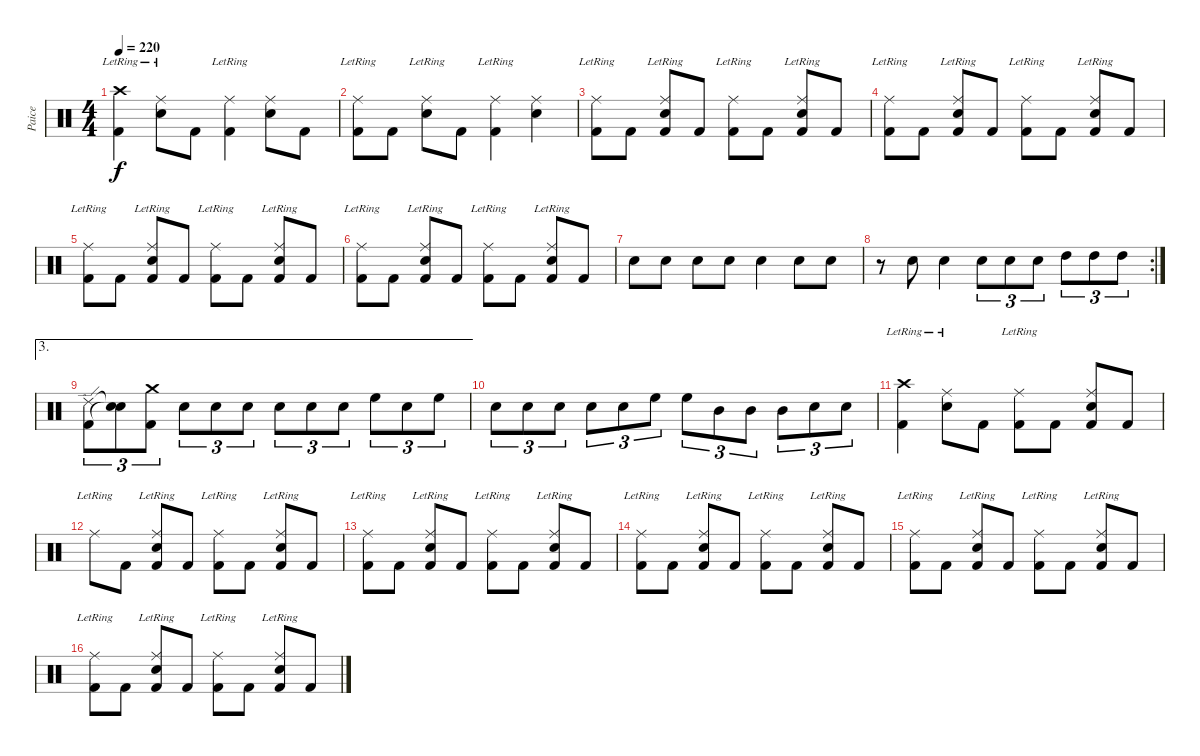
\track ("Paice" "Paice") {instrument percussion}
\staff {score}
\articulation defaults
\ts (4 4)
\tempo 220
\clef neutral
\ks c
("Crash high (hit)"{lr} "Kick (hit) 2").4{dy f} ("Ride (middle)"{lr} "Snare (hit) 2").8 "Kick (hit) 2".8 ("Ride (middle)"{lr} "Kick (hit) 2").4 ("Ride (middle)" "Snare (hit) 2").8 "Kick (hit) 2".8 |
("Ride (middle)"{lr} "Kick (hit) 2").8 "Kick (hit) 2".8 ("Ride (middle)"{lr} "Snare (hit) 2").8 "Kick (hit) 2".8 ("Ride (middle)"{lr} "Kick (hit) 2").4 ("Ride (middle)" "Snare (hit) 2").4 |
("Ride (middle)"{lr} "Kick (hit) 2").8 "Kick (hit) 2".8 ("Ride (middle)"{lr} "Snare (hit) 2" "Kick (hit) 2").8 "Kick (hit) 2".8 ("Ride (middle)"{lr} "Kick (hit) 2").8 "Kick (hit) 2".8 ("Ride (middle)"{lr} "Snare (hit) 2" "Kick (hit) 2").8 "Kick (hit) 2".8 |
("Ride (middle)"{lr} "Kick (hit) 2").8 "Kick (hit) 2".8 ("Ride (middle)"{lr} "Snare (hit) 2" "Kick (hit) 2").8 "Kick (hit) 2".8 ("Ride (middle)"{lr} "Kick (hit) 2").8 "Kick (hit) 2".8 ("Ride (middle)"{lr} "Snare (hit) 2" "Kick (hit) 2").8 "Kick (hit) 2".8 |
("Ride (middle)"{lr} "Kick (hit) 2").8 "Kick (hit) 2".8 ("Ride (middle)"{lr} "Snare (hit) 2" "Kick (hit) 2").8 "Kick (hit) 2".8 ("Ride (middle)"{lr} "Kick (hit) 2").8 "Kick (hit) 2".8 ("Ride (middle)"{lr} "Snare (hit) 2" "Kick (hit) 2").8 "Kick (hit) 2".8 |
("Ride (middle)"{lr} "Kick (hit) 2").8 "Kick (hit) 2".8 ("Ride (middle)"{lr} "Snare (hit) 2" "Kick (hit) 2").8 "Kick (hit) 2".8 ("Ride (middle)"{lr} "Kick (hit) 2").8 "Kick (hit) 2".8 ("Ride (middle)"{lr} "Snare (hit) 2" "Kick (hit) 2").8 "Kick (hit) 2".8 |
"Snare (hit) 2".8 "Snare (hit) 2".8 "Snare (hit) 2".8 "Snare (hit) 2".8 "Snare (hit) 2".4 "Snare (hit) 2".8 "Snare (hit) 2".8 |
\rc 2
r.8 "Snare (hit) 2".8 "Snare (hit) 2".4 "Snare (hit) 2".8{tu (3 2)} "Snare (hit) 2".8{tu (3 2)} "Snare (hit) 2".8{tu (3 2)} "High Tom (hit)".8{tu (3 2)} "High Tom (hit)".8{tu (3 2)} "High Tom (hit)".8{tu (3 2)} |
\ae 3
("Ride (edge) 2" "Kick (hit) 2").8{tu (3 2)} ("Snare (hit)"{t} "Snare (hit)"{t}).8{tu (3 2)} ("Crash medium (hit)" "Kick (hit) 2").8{tu (3 2)} "Snare (hit) 2".8{tu (3 2)} "Snare (hit) 2".8{tu (3 2)} "Snare (hit) 2".8{tu (3 2)} "Snare (hit) 2".8{tu (3 2)} "Snare (hit) 2".8{tu (3 2)} "Snare (hit) 2".8{tu (3 2)} "High Floor Tom (hit)".8{tu (3 2)} "Snare (hit) 2".8{tu (3 2)} "High Floor Tom (hit)".8{tu (3 2)} |
"Snare (hit) 2".8{tu (3 2)} "Snare (hit) 2".8{tu (3 2)} "Snare (hit) 2".8{tu (3 2)} "Snare (hit) 2".8{tu (3 2)} "Snare (hit) 2".8{tu (3 2)} "High Floor Tom (hit)".8{tu (3 2)} "High Floor Tom (hit)".8{tu (3 2)} "Mid Tom (hit)".8{tu (3 2)} "Mid Tom (hit)".8{tu (3 2)} "Mid Tom (hit)".8{tu (3 2)} "Snare (hit) 2".8{tu (3 2)} "Snare (hit) 2".8{tu (3 2)} |
("Crash high (hit)"{lr} "Kick (hit) 2").4 ("Ride (middle)"{lr} "Snare (hit) 2").8 "Kick (hit) 2".8 ("Ride (middle)"{lr} "Kick (hit) 2").8 "Kick (hit) 2".8 ("Ride (middle)" "Snare (hit) 2" "Kick (hit) 2").8 "Kick (hit) 2".8 |
"Ride (middle)"{lr}.8 "Kick (hit) 2".8 ("Ride (middle)"{lr} "Snare (hit) 2" "Kick (hit) 2").8 "Kick (hit) 2".8 ("Ride (middle)"{lr} "Kick (hit) 2").8 "Kick (hit) 2".8 ("Ride (middle)"{lr} "Snare (hit) 2" "Kick (hit) 2").8 "Kick (hit) 2".8 |
("Ride (middle)"{lr} "Kick (hit) 2").8 "Kick (hit) 2".8 ("Ride (middle)"{lr} "Snare (hit) 2" "Kick (hit) 2").8 "Kick (hit) 2".8 ("Ride (middle)"{lr} "Kick (hit) 2").8 "Kick (hit) 2".8 ("Ride (middle)"{lr} "Snare (hit) 2" "Kick (hit) 2").8 "Kick (hit) 2".8 |
("Ride (middle)"{lr} "Kick (hit) 2").8 "Kick (hit) 2".8 ("Ride (middle)"{lr} "Snare (hit) 2" "Kick (hit) 2").8 "Kick (hit) 2".8 ("Ride (middle)"{lr} "Kick (hit) 2").8 "Kick (hit) 2".8 ("Ride (middle)"{lr} "Snare (hit) 2" "Kick (hit) 2").8 "Kick (hit) 2".8 |
("Ride (middle)"{lr} "Kick (hit) 2").8 "Kick (hit) 2".8 ("Ride (middle)"{lr} "Snare (hit) 2" "Kick (hit) 2").8 "Kick (hit) 2".8 ("Ride (middle)"{lr} "Kick (hit) 2").8 "Kick (hit) 2".8 ("Ride (middle)"{lr} "Snare (hit) 2" "Kick (hit) 2").8 "Kick (hit) 2".8 |
("Ride (middle)"{lr} "Kick (hit) 2").8 "Kick (hit) 2".8 ("Ride (middle)"{lr} "Snare (hit) 2" "Kick (hit) 2").8 "Kick (hit) 2".8 ("Ride (middle)"{lr} "Kick (hit) 2").8 "Kick (hit) 2".8 ("Ride (middle)"{lr} "Snare (hit) 2" "Kick (hit) 2").8 "Kick (hit) 2".8
